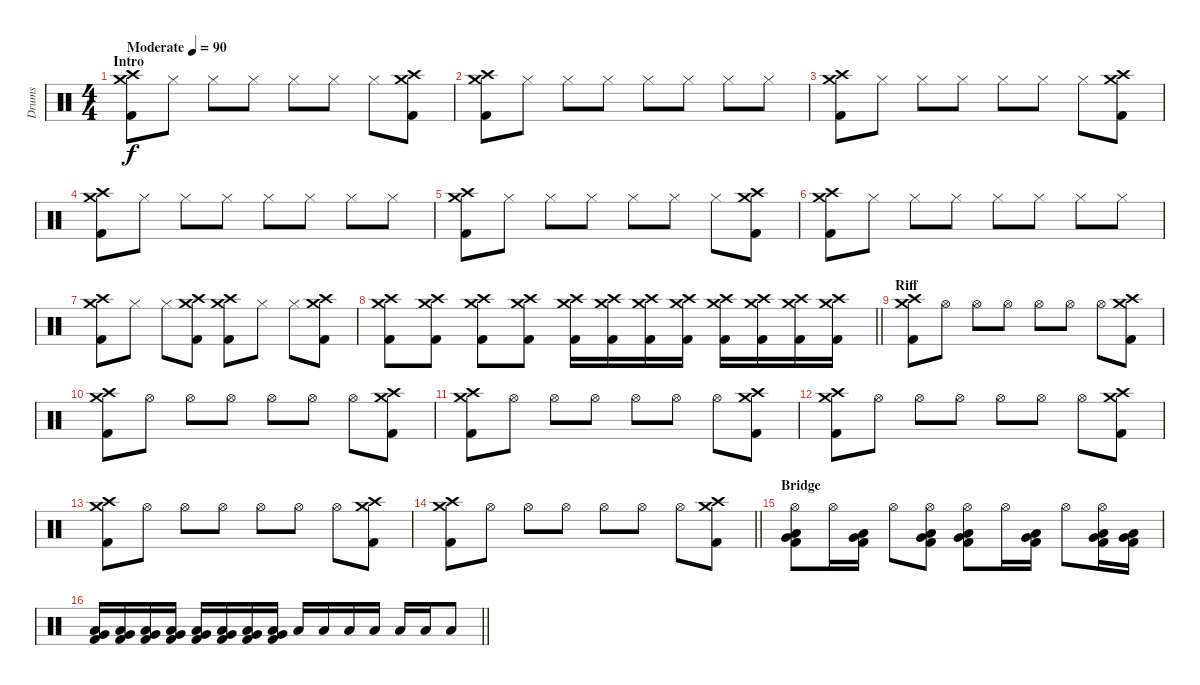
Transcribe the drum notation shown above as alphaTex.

\track ("Drums" "Drums") {instrument percussion}
\staff {score}
\articulation defaults
\ts (4 4)
\section ("" "Intro")
\tempo (90 "Moderate")
\clef neutral
\ks c
("Kick (hit) 2" "Crash medium (hit)" "Crash high (hit)").8{dy f} "Hi-Hat (closed)".8 "Hi-Hat (closed)".8 "Hi-Hat (closed)".8 "Hi-Hat (closed)".8 "Hi-Hat (closed)".8 "Hi-Hat (closed)".8 ("Kick (hit) 2" "Crash medium (hit)" "Crash high (hit)").8 |
("Kick (hit) 2" "Crash medium (hit)" "Crash high (hit)").8 "Hi-Hat (closed)".8 "Hi-Hat (closed)".8 "Hi-Hat (closed)".8 "Hi-Hat (closed)".8 "Hi-Hat (closed)".8 "Hi-Hat (closed)".8 "Hi-Hat (closed)".8 |
("Kick (hit) 2" "Crash medium (hit)" "Crash high (hit)").8 "Hi-Hat (closed)".8 "Hi-Hat (closed)".8 "Hi-Hat (closed)".8 "Hi-Hat (closed)".8 "Hi-Hat (closed)".8 "Hi-Hat (closed)".8 ("Kick (hit) 2" "Crash medium (hit)" "Crash high (hit)").8 |
("Kick (hit) 2" "Crash medium (hit)" "Crash high (hit)").8 "Hi-Hat (closed)".8 "Hi-Hat (closed)".8 "Hi-Hat (closed)".8 "Hi-Hat (closed)".8 "Hi-Hat (closed)".8 "Hi-Hat (closed)".8 "Hi-Hat (closed)".8 |
("Kick (hit) 2" "Crash medium (hit)" "Crash high (hit)").8 "Hi-Hat (closed)".8 "Hi-Hat (closed)".8 "Hi-Hat (closed)".8 "Hi-Hat (closed)".8 "Hi-Hat (closed)".8 "Hi-Hat (closed)".8 ("Kick (hit) 2" "Crash medium (hit)" "Crash high (hit)").8 |
("Kick (hit) 2" "Crash medium (hit)" "Crash high (hit)").8 "Hi-Hat (closed)".8 "Hi-Hat (closed)".8 "Hi-Hat (closed)".8 "Hi-Hat (closed)".8 "Hi-Hat (closed)".8 "Hi-Hat (closed)".8 "Hi-Hat (closed)".8 |
("Kick (hit) 2" "Crash medium (hit)" "Crash high (hit)").8 "Hi-Hat (closed)".8 "Hi-Hat (closed)".8 ("Kick (hit) 2" "Crash medium (hit)" "Crash high (hit)").8 ("Kick (hit) 2" "Crash medium (hit)" "Crash high (hit)").8 "Hi-Hat (closed)".8 "Hi-Hat (closed)".8 ("Kick (hit) 2" "Crash medium (hit)" "Crash high (hit)").8 |
\barLineRight lightlight
("Kick (hit) 2" "Crash medium (hit)" "Crash high (hit)").8 ("Kick (hit) 2" "Crash medium (hit)" "Crash high (hit)").8 ("Kick (hit) 2" "Crash medium (hit)" "Crash high (hit)").8 ("Kick (hit) 2" "Crash medium (hit)" "Crash high (hit)").8 ("Kick (hit) 2" "Crash medium (hit)" "Crash high (hit)").16 ("Kick (hit) 2" "Crash medium (hit)" "Crash high (hit)").16 ("Kick (hit) 2" "Crash medium (hit)" "Crash high (hit)").16 ("Kick (hit) 2" "Crash medium (hit)" "Crash high (hit)").16 ("Kick (hit) 2" "Crash medium (hit)" "Crash high (hit)").16 ("Kick (hit) 2" "Crash medium (hit)" "Crash high (hit)").16 ("Kick (hit) 2" "Crash medium (hit)" "Crash high (hit)").16 ("Kick (hit) 2" "Crash medium (hit)" "Crash high (hit)").16 |
\section ("" "Riff")
("Kick (hit) 2" "Crash medium (hit)" "Crash high (hit)").8 "Hi-Hat (open)".8 "Hi-Hat (open)".8 "Hi-Hat (open)".8 "Hi-Hat (open)".8 "Hi-Hat (open)".8 "Hi-Hat (open)".8 ("Kick (hit) 2" "Crash medium (hit)" "Crash high (hit)").8 |
("Kick (hit) 2" "Crash medium (hit)" "Crash high (hit)").8 "Hi-Hat (open)".8 "Hi-Hat (open)".8 "Hi-Hat (open)".8 "Hi-Hat (open)".8 "Hi-Hat (open)".8 "Hi-Hat (open)".8 ("Kick (hit) 2" "Crash medium (hit)" "Crash high (hit)").8 |
("Kick (hit) 2" "Crash medium (hit)" "Crash high (hit)").8 "Hi-Hat (open)".8 "Hi-Hat (open)".8 "Hi-Hat (open)".8 "Hi-Hat (open)".8 "Hi-Hat (open)".8 "Hi-Hat (open)".8 ("Kick (hit) 2" "Crash medium (hit)" "Crash high (hit)").8 |
("Kick (hit) 2" "Crash medium (hit)" "Crash high (hit)").8 "Hi-Hat (open)".8 "Hi-Hat (open)".8 "Hi-Hat (open)".8 "Hi-Hat (open)".8 "Hi-Hat (open)".8 "Hi-Hat (open)".8 ("Kick (hit) 2" "Crash medium (hit)" "Crash high (hit)").8 |
("Kick (hit) 2" "Crash medium (hit)" "Crash high (hit)").8 "Hi-Hat (open)".8 "Hi-Hat (open)".8 "Hi-Hat (open)".8 "Hi-Hat (open)".8 "Hi-Hat (open)".8 "Hi-Hat (open)".8 ("Kick (hit) 2" "Crash medium (hit)" "Crash high (hit)").8 |
\barLineRight lightlight
("Kick (hit) 2" "Crash medium (hit)" "Crash high (hit)").8 "Hi-Hat (open)".8 "Hi-Hat (open)".8 "Hi-Hat (open)".8 "Hi-Hat (open)".8 "Hi-Hat (open)".8 "Hi-Hat (open)".8 ("Kick (hit) 2" "Crash medium (hit)" "Crash high (hit)").8 |
\section ("" "Bridge")
("Kick (hit) 2" "Very Low Tom (hit)" "Low Floor Tom (hit)" "Hi-Hat (open)").8 "Hi-Hat (open)".16 ("Kick (hit) 2" "Very Low Tom (hit)" "Low Floor Tom (hit)").16 "Hi-Hat (open)".8 ("Kick (hit) 2" "Very Low Tom (hit)" "Low Floor Tom (hit)" "Hi-Hat (open)").8 ("Kick (hit) 2" "Very Low Tom (hit)" "Low Floor Tom (hit)" "Hi-Hat (open)").8 "Hi-Hat (open)".16 ("Kick (hit) 2" "Very Low Tom (hit)" "Low Floor Tom (hit)").16 "Hi-Hat (open)".8 ("Kick (hit) 2" "Very Low Tom (hit)" "Low Floor Tom (hit)" "Hi-Hat (open)").16 ("Kick (hit) 2" "Very Low Tom (hit)" "Low Floor Tom (hit)").16 |
\barLineRight lightlight
("Kick (hit) 2" "Very Low Tom (hit)" "Low Floor Tom (hit)").16 ("Kick (hit) 2" "Very Low Tom (hit)" "Low Floor Tom (hit)").16 ("Kick (hit) 2" "Very Low Tom (hit)" "Low Floor Tom (hit)").16 ("Kick (hit) 2" "Very Low Tom (hit)" "Low Floor Tom (hit)").16 ("Kick (hit) 2" "Very Low Tom (hit)" "Low Floor Tom (hit)").16 ("Kick (hit) 2" "Very Low Tom (hit)" "Low Floor Tom (hit)").16 ("Kick (hit) 2" "Very Low Tom (hit)" "Low Floor Tom (hit)").16 ("Kick (hit) 2" "Very Low Tom (hit)" "Low Floor Tom (hit)").16 "Low Tom (hit)".16 "Low Tom (hit)".16 "Low Tom (hit)".16 "Low Tom (hit)".16 "Low Tom (hit)".16 "Low Tom (hit)".16 "Low Tom (hit)".8
